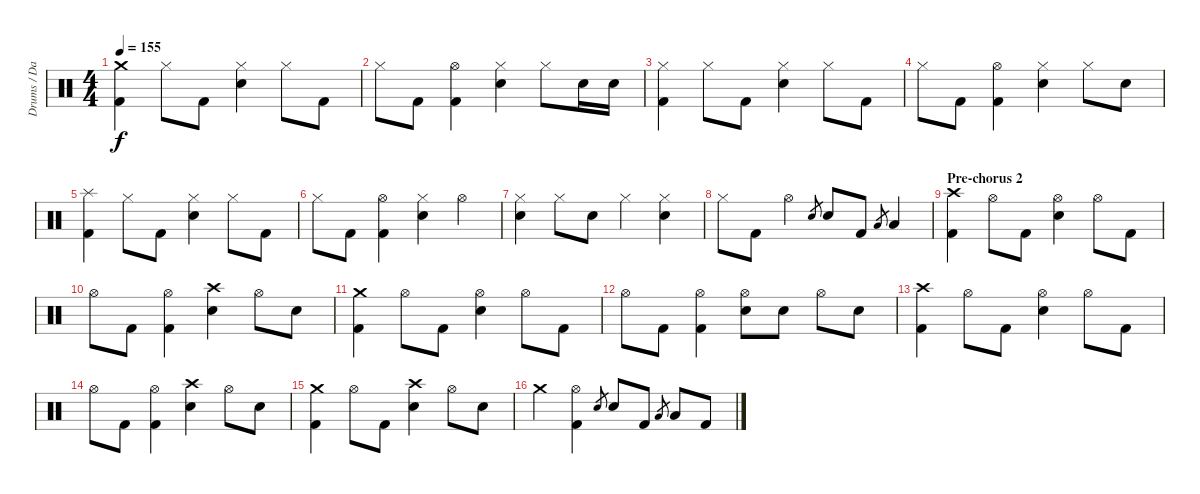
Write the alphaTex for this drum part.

\track ("Drums / David" "Drums / Da") {instrument percussion}
\staff {score}
\articulation defaults
\ts (4 4)
\tempo 155
\clef neutral
\ks c
("Crash medium (hit)" "Kick (hit) 2").4{dy f} "Hi-Hat (closed)".8 "Kick (hit) 2".8 ("Hi-Hat (closed)" "Electric Snare (hit)").4 "Hi-Hat (closed)".8 "Kick (hit) 2".8 |
"Hi-Hat (closed)".8 "Kick (hit) 2".8 ("Hi-Hat (open)" "Kick (hit) 2").4 ("Hi-Hat (closed)" "Electric Snare (hit)").4 "Hi-Hat (closed)".8 "Electric Snare (hit)".16 "Electric Snare (hit)".16 |
("Hi-Hat (closed)" "Kick (hit) 2").4 "Hi-Hat (closed)".8 "Kick (hit) 2".8 ("Hi-Hat (closed)" "Electric Snare (hit)").4 "Hi-Hat (closed)".8 "Kick (hit) 2".8 |
"Hi-Hat (closed)".8 "Kick (hit) 2".8 ("Hi-Hat (open)" "Kick (hit) 2").4 ("Hi-Hat (closed)" "Electric Snare (hit)").4 "Hi-Hat (closed)".8 "Electric Snare (hit)".8 |
("Splash (hit)" "Kick (hit) 2").4 "Hi-Hat (closed)".8 "Kick (hit) 2".8 ("Hi-Hat (closed)" "Electric Snare (hit)").4 "Hi-Hat (closed)".8 "Kick (hit) 2".8 |
"Hi-Hat (closed)".8 "Kick (hit) 2".8 ("Hi-Hat (open)" "Kick (hit) 2").4 ("Hi-Hat (closed)" "Electric Snare (hit)").4 "Hi-Hat (open)".4 |
("Hi-Hat (closed)" "Electric Snare (hit)").4 "Hi-Hat (closed)".8 "Electric Snare (hit)".8 "Hi-Hat (closed)".4 ("Hi-Hat (closed)" "Electric Snare (hit)").4 |
"Hi-Hat (closed)".8 "Kick (hit) 2".8 "Hi-Hat (open)".4 "Electric Snare (hit)".8{gr} "Electric Snare (hit)".8 "Kick (hit) 2".8 "Low Floor Tom (hit)".8{gr} "Low Floor Tom (hit)".4 |
\section ("" "Pre-chorus 2")
("Crash high (hit)" "Kick (hit) 2").4 "Hi-Hat (open)".8 "Kick (hit) 2".8 ("Hi-Hat (open)" "Electric Snare (hit)").4 "Hi-Hat (open)".8 "Kick (hit) 2".8 |
"Hi-Hat (open)".8 "Kick (hit) 2".8 ("Hi-Hat (open)" "Kick (hit) 2").4 ("Crash high (hit)" "Electric Snare (hit)").4 "Hi-Hat (open)".8 "Electric Snare (hit)".8 |
("Crash medium (hit)" "Kick (hit) 2").4 "Hi-Hat (open)".8 "Kick (hit) 2".8 ("Hi-Hat (open)" "Electric Snare (hit)").4 "Hi-Hat (open)".8 "Kick (hit) 2".8 |
"Hi-Hat (open)".8 "Kick (hit) 2".8 ("Hi-Hat (open)" "Kick (hit) 2").4 ("Hi-Hat (open)" "Electric Snare (hit)").8 "Electric Snare (hit)".8 "Hi-Hat (open)".8 "Electric Snare (hit)".8 |
("Crash high (hit)" "Kick (hit) 2").4 "Hi-Hat (open)".8 "Kick (hit) 2".8 ("Hi-Hat (open)" "Electric Snare (hit)").4 "Hi-Hat (open)".8 "Kick (hit) 2".8 |
"Hi-Hat (open)".8 "Kick (hit) 2".8 ("Hi-Hat (open)" "Kick (hit) 2").4 ("Crash high (hit)" "Electric Snare (hit)").4 "Hi-Hat (open)".8 "Electric Snare (hit)".8 |
("Crash medium (hit)" "Kick (hit) 2").4 "Hi-Hat (open)".8 "Kick (hit) 2".8 ("Crash high (hit)" "Electric Snare (hit)").4 "Hi-Hat (open)".8 "Electric Snare (hit)".8 |
"Crash medium (hit)".4 ("Hi-Hat (open)" "Kick (hit) 2").4 "Electric Snare (hit)".8{gr} "Electric Snare (hit)".8 "Kick (hit) 2".8 "Low Floor Tom (hit)".8{gr} "Low Floor Tom (hit)".8 "Kick (hit) 2".8
